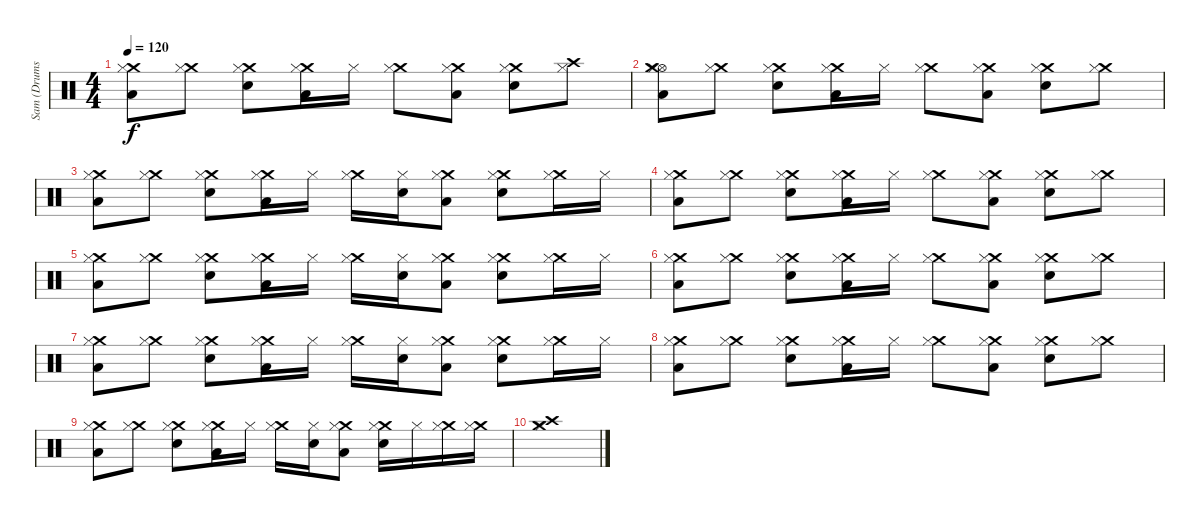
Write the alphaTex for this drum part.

\track ("Sam (Drums)" "Sam (Drums") {instrument percussion}
\staff {score}
\articulation defaults
\ts (4 4)
\tempo 120
\clef neutral
\ks c
("Crash medium (hit)" "Low Tom (hit)" "Hi-Hat (closed)").8{dy f} ("Crash medium (hit)" "Hi-Hat (closed)").8 ("Crash medium (hit)" "Snare (hit) 2" "Hi-Hat (closed)").8 ("Crash medium (hit)" "Low Tom (hit)" "Hi-Hat (closed)").16 "Hi-Hat (closed)".16 ("Crash medium (hit)" "Hi-Hat (closed)").8 ("Crash medium (hit)" "Low Tom (hit)" "Hi-Hat (closed)").8 ("Crash medium (hit)" "Snare (hit) 2" "Hi-Hat (closed)").8 ("Crash high (hit)" "Hi-Hat (closed)").8 |
("Hi-Hat (open)" "Crash medium (hit)" "Low Tom (hit)" "Hi-Hat (closed)").8 ("Crash medium (hit)" "Hi-Hat (closed)").8 ("Crash medium (hit)" "Snare (hit) 2" "Hi-Hat (closed)").8 ("Crash medium (hit)" "Low Tom (hit)" "Hi-Hat (closed)").16 "Hi-Hat (closed)".16 ("Crash medium (hit)" "Hi-Hat (closed)").8 ("Crash medium (hit)" "Low Tom (hit)" "Hi-Hat (closed)").8 ("Crash medium (hit)" "Snare (hit) 2" "Hi-Hat (closed)").8 ("Crash medium (hit)" "Hi-Hat (closed)").8 |
("Crash medium (hit)" "Low Tom (hit)" "Hi-Hat (closed)").8 ("Crash medium (hit)" "Hi-Hat (closed)").8 ("Crash medium (hit)" "Snare (hit) 2" "Hi-Hat (closed)").8 ("Crash medium (hit)" "Low Tom (hit)" "Hi-Hat (closed)").16 "Hi-Hat (closed)".16 ("Crash medium (hit)" "Hi-Hat (closed)").16 ("Snare (hit) 2" "Hi-Hat (closed)").16 ("Crash medium (hit)" "Low Tom (hit)" "Hi-Hat (closed)").8 ("Crash medium (hit)" "Snare (hit) 2" "Hi-Hat (closed)").8 ("Crash medium (hit)" "Hi-Hat (closed)").16 "Hi-Hat (closed)".16 |
("Crash medium (hit)" "Low Tom (hit)" "Hi-Hat (closed)").8 ("Crash medium (hit)" "Hi-Hat (closed)").8 ("Crash medium (hit)" "Snare (hit) 2" "Hi-Hat (closed)").8 ("Crash medium (hit)" "Low Tom (hit)" "Hi-Hat (closed)").16 "Hi-Hat (closed)".16 ("Crash medium (hit)" "Hi-Hat (closed)").8 ("Crash medium (hit)" "Low Tom (hit)" "Hi-Hat (closed)").8 ("Crash medium (hit)" "Snare (hit) 2" "Hi-Hat (closed)").8 ("Crash medium (hit)" "Hi-Hat (closed)").8 |
("Crash medium (hit)" "Low Tom (hit)" "Hi-Hat (closed)").8 ("Crash medium (hit)" "Hi-Hat (closed)").8 ("Crash medium (hit)" "Snare (hit) 2" "Hi-Hat (closed)").8 ("Crash medium (hit)" "Low Tom (hit)" "Hi-Hat (closed)").16 "Hi-Hat (closed)".16 ("Crash medium (hit)" "Hi-Hat (closed)").16 ("Snare (hit) 2" "Hi-Hat (closed)").16 ("Crash medium (hit)" "Low Tom (hit)" "Hi-Hat (closed)").8 ("Crash medium (hit)" "Snare (hit) 2" "Hi-Hat (closed)").8 ("Crash medium (hit)" "Hi-Hat (closed)").16 "Hi-Hat (closed)".16 |
("Crash medium (hit)" "Low Tom (hit)" "Hi-Hat (closed)").8 ("Crash medium (hit)" "Hi-Hat (closed)").8 ("Crash medium (hit)" "Snare (hit) 2" "Hi-Hat (closed)").8 ("Crash medium (hit)" "Low Tom (hit)" "Hi-Hat (closed)").16 "Hi-Hat (closed)".16 ("Crash medium (hit)" "Hi-Hat (closed)").8 ("Crash medium (hit)" "Low Tom (hit)" "Hi-Hat (closed)").8 ("Crash medium (hit)" "Snare (hit) 2" "Hi-Hat (closed)").8 ("Crash medium (hit)" "Hi-Hat (closed)").8 |
("Crash medium (hit)" "Low Tom (hit)" "Hi-Hat (closed)").8 ("Crash medium (hit)" "Hi-Hat (closed)").8 ("Crash medium (hit)" "Snare (hit) 2" "Hi-Hat (closed)").8 ("Crash medium (hit)" "Low Tom (hit)" "Hi-Hat (closed)").16 "Hi-Hat (closed)".16 ("Crash medium (hit)" "Hi-Hat (closed)").16 ("Snare (hit) 2" "Hi-Hat (closed)").16 ("Crash medium (hit)" "Low Tom (hit)" "Hi-Hat (closed)").8 ("Crash medium (hit)" "Snare (hit) 2" "Hi-Hat (closed)").8 ("Crash medium (hit)" "Hi-Hat (closed)").16 "Hi-Hat (closed)".16 |
("Crash medium (hit)" "Low Tom (hit)" "Hi-Hat (closed)").8 ("Crash medium (hit)" "Hi-Hat (closed)").8 ("Crash medium (hit)" "Snare (hit) 2" "Hi-Hat (closed)").8 ("Crash medium (hit)" "Low Tom (hit)" "Hi-Hat (closed)").16 "Hi-Hat (closed)".16 ("Crash medium (hit)" "Hi-Hat (closed)").8 ("Crash medium (hit)" "Low Tom (hit)" "Hi-Hat (closed)").8 ("Crash medium (hit)" "Snare (hit) 2" "Hi-Hat (closed)").8 ("Crash medium (hit)" "Hi-Hat (closed)").8 |
("Crash medium (hit)" "Low Tom (hit)" "Hi-Hat (closed)").8 ("Crash medium (hit)" "Hi-Hat (closed)").8 ("Crash medium (hit)" "Snare (hit) 2" "Hi-Hat (closed)").8 ("Crash medium (hit)" "Low Tom (hit)" "Hi-Hat (closed)").16 "Hi-Hat (closed)".16 ("Crash medium (hit)" "Hi-Hat (closed)").16 ("Snare (hit) 2" "Hi-Hat (closed)").16 ("Crash medium (hit)" "Low Tom (hit)" "Hi-Hat (closed)").8 ("Crash medium (hit)" "Snare (hit) 2" "Hi-Hat (closed)").16 "Hi-Hat (closed)".16 ("Crash medium (hit)" "Hi-Hat (closed)").16 ("Crash medium (hit)" "Hi-Hat (closed)").16 |
("Crash high (hit)" "Crash medium (hit)" "Hi-Hat (closed)").1
